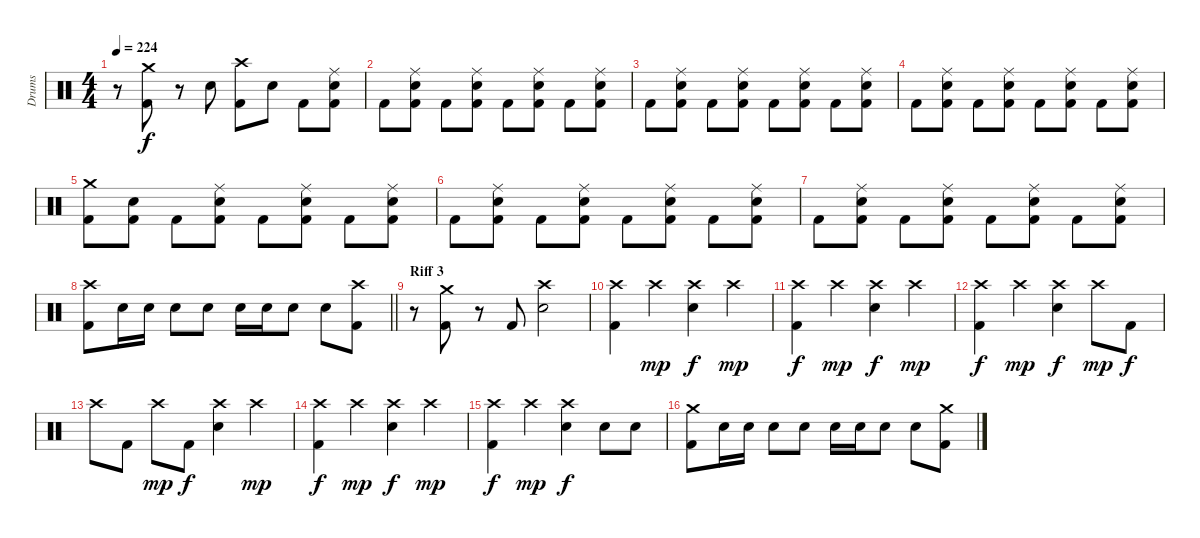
\track ("Drums" "Drums") {instrument percussion}
\staff {score}
\articulation defaults
\ts (4 4)
\tempo 224
\clef neutral
\ks c
r.8{dy f} ("Kick (hit) 2" "Crash medium (hit)").8 r.8 "Electric Snare (hit)".8 ("Kick (hit) 2" "Crash high (hit)").8 "Electric Snare (hit)".8 "Kick (hit) 2".8 ("Electric Snare (hit)" "Ride (middle)" "Kick (hit) 2").8 |
"Kick (hit) 2".8 ("Electric Snare (hit)" "Ride (middle)" "Kick (hit) 2").8 "Kick (hit) 2".8 ("Electric Snare (hit)" "Ride (middle)" "Kick (hit) 2").8 "Kick (hit) 2".8 ("Electric Snare (hit)" "Ride (middle)" "Kick (hit) 2").8 "Kick (hit) 2".8 ("Electric Snare (hit)" "Ride (middle)" "Kick (hit) 2").8 |
"Kick (hit) 2".8 ("Electric Snare (hit)" "Ride (middle)" "Kick (hit) 2").8 "Kick (hit) 2".8 ("Electric Snare (hit)" "Ride (middle)" "Kick (hit) 2").8 "Kick (hit) 2".8 ("Electric Snare (hit)" "Ride (middle)" "Kick (hit) 2").8 "Kick (hit) 2".8 ("Electric Snare (hit)" "Ride (middle)" "Kick (hit) 2").8 |
"Kick (hit) 2".8 ("Electric Snare (hit)" "Ride (middle)" "Kick (hit) 2").8 "Kick (hit) 2".8 ("Electric Snare (hit)" "Ride (middle)" "Kick (hit) 2").8 "Kick (hit) 2".8 ("Electric Snare (hit)" "Ride (middle)" "Kick (hit) 2").8 "Kick (hit) 2".8 ("Electric Snare (hit)" "Ride (middle)" "Kick (hit) 2").8 |
("Kick (hit) 2" "Crash medium (hit)").8 ("Electric Snare (hit)" "Kick (hit) 2").8 "Kick (hit) 2".8 ("Electric Snare (hit)" "Ride (middle)" "Kick (hit) 2").8 "Kick (hit) 2".8 ("Electric Snare (hit)" "Ride (middle)" "Kick (hit) 2").8 "Kick (hit) 2".8 ("Electric Snare (hit)" "Ride (middle)" "Kick (hit) 2").8 |
"Kick (hit) 2".8 ("Electric Snare (hit)" "Ride (middle)" "Kick (hit) 2").8 "Kick (hit) 2".8 ("Electric Snare (hit)" "Ride (middle)" "Kick (hit) 2").8 "Kick (hit) 2".8 ("Electric Snare (hit)" "Ride (middle)" "Kick (hit) 2").8 "Kick (hit) 2".8 ("Electric Snare (hit)" "Ride (middle)" "Kick (hit) 2").8 |
"Kick (hit) 2".8 ("Electric Snare (hit)" "Ride (middle)" "Kick (hit) 2").8 "Kick (hit) 2".8 ("Electric Snare (hit)" "Ride (middle)" "Kick (hit) 2").8 "Kick (hit) 2".8 ("Electric Snare (hit)" "Ride (middle)" "Kick (hit) 2").8 "Kick (hit) 2".8 ("Electric Snare (hit)" "Ride (middle)" "Kick (hit) 2").8 |
\barLineRight lightlight
("Crash high (hit)" "Kick (hit) 2").8 "Electric Snare (hit)".16 "Electric Snare (hit)".16 "Electric Snare (hit)".8 "Electric Snare (hit)".8 "Electric Snare (hit)".16 "Electric Snare (hit)".16 "Electric Snare (hit)".8 "Electric Snare (hit)".8 ("Kick (hit) 2" "Crash high (hit)").8 |
\section ("" "Riff 3")
r.8 ("Kick (hit) 2" "Crash medium (hit)").8 r.8 "Kick (hit) 2".8 ("Electric Snare (hit)" "Crash high (hit)").2 |
("Crash high (hit)" "Kick (hit) 2").4 "Crash high (hit)".4{dy mp} ("Electric Snare (hit)" "Crash high (hit)").4{dy f} "Crash high (hit)".4{dy mp} |
("Crash high (hit)" "Kick (hit) 2").4{dy f} "Crash high (hit)".4{dy mp} ("Electric Snare (hit)" "Crash high (hit)").4{dy f} "Crash high (hit)".4{dy mp} |
("Crash high (hit)" "Kick (hit) 2").4{dy f} "Crash high (hit)".4{dy mp} ("Electric Snare (hit)" "Crash high (hit)").4{dy f} "Crash high (hit)".8{dy mp} "Kick (hit) 2".8{dy f} |
"Crash high (hit)".8 "Kick (hit) 2".8 "Crash high (hit)".8{dy mp} "Kick (hit) 2".8{dy f} ("Electric Snare (hit)" "Crash high (hit)").4 "Crash high (hit)".4{dy mp} |
("Crash high (hit)" "Kick (hit) 2").4{dy f} "Crash high (hit)".4{dy mp} ("Electric Snare (hit)" "Crash high (hit)").4{dy f} "Crash high (hit)".4{dy mp} |
("Crash high (hit)" "Kick (hit) 2").4{dy f} "Crash high (hit)".4{dy mp} ("Electric Snare (hit)" "Crash high (hit)").4{dy f} "Electric Snare (hit)".8 "Electric Snare (hit)".8 |
("Crash medium (hit)" "Kick (hit) 2").8 "Electric Snare (hit)".16 "Electric Snare (hit)".16 "Electric Snare (hit)".8 "Electric Snare (hit)".8 "Electric Snare (hit)".16 "Electric Snare (hit)".16 "Electric Snare (hit)".8 "Electric Snare (hit)".8 ("Crash medium (hit)" "Kick (hit) 2").8
